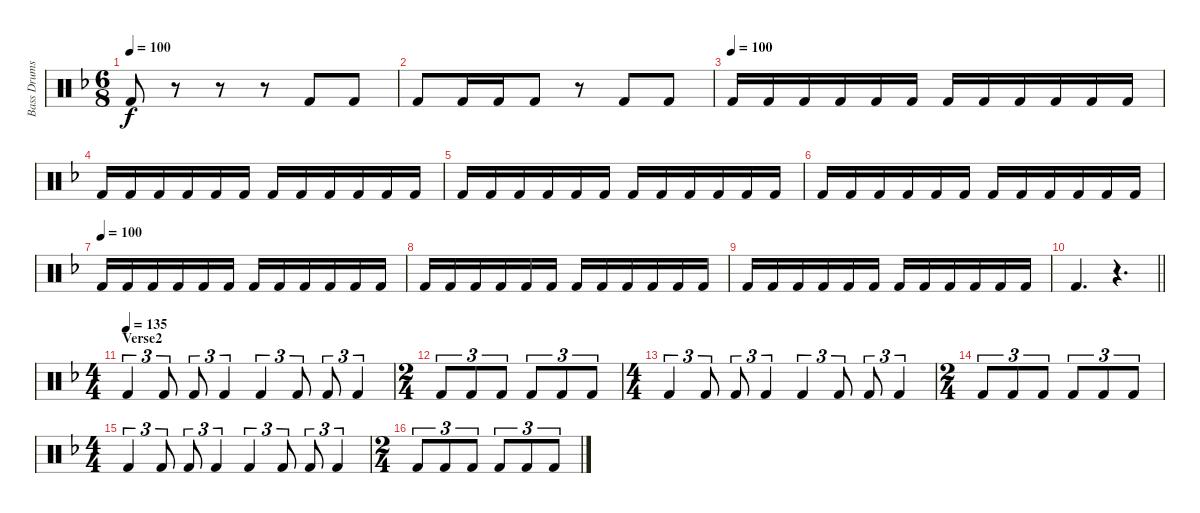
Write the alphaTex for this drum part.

\track ("Bass Drums" "Bass Drums") {instrument percussion}
\staff {score}
\articulation defaults
\ts (6 8)
\tempo 100
\clef neutral
\ks dminor "Kick (hit) 2".8{dy f}
r.8 r.8 r.8 "Kick (hit) 2".8 "Kick (hit) 2".8 |
"Kick (hit) 2".8 "Kick (hit) 2".16 "Kick (hit) 2".16 "Kick (hit) 2".8 r.8 "Kick (hit) 2".8 "Kick (hit) 2".8 |
\tempo 90
\tempo (100)
"Kick (hit) 2".16 "Kick (hit) 2".16 "Kick (hit) 2".16 "Kick (hit) 2".16 "Kick (hit) 2".16 "Kick (hit) 2".16 "Kick (hit) 2".16 "Kick (hit) 2".16 "Kick (hit) 2".16 "Kick (hit) 2".16 "Kick (hit) 2".16 "Kick (hit) 2".16 |
"Kick (hit) 2".16 "Kick (hit) 2".16 "Kick (hit) 2".16 "Kick (hit) 2".16 "Kick (hit) 2".16 "Kick (hit) 2".16 "Kick (hit) 2".16 "Kick (hit) 2".16 "Kick (hit) 2".16 "Kick (hit) 2".16 "Kick (hit) 2".16 "Kick (hit) 2".16 |
"Kick (hit) 2".16 "Kick (hit) 2".16 "Kick (hit) 2".16 "Kick (hit) 2".16 "Kick (hit) 2".16 "Kick (hit) 2".16 "Kick (hit) 2".16 "Kick (hit) 2".16 "Kick (hit) 2".16 "Kick (hit) 2".16 "Kick (hit) 2".16 "Kick (hit) 2".16 |
"Kick (hit) 2".16 "Kick (hit) 2".16 "Kick (hit) 2".16 "Kick (hit) 2".16 "Kick (hit) 2".16 "Kick (hit) 2".16 "Kick (hit) 2".16 "Kick (hit) 2".16 "Kick (hit) 2".16 "Kick (hit) 2".16 "Kick (hit) 2".16 "Kick (hit) 2".16 |
\tempo 90
\tempo (100)
"Kick (hit) 2".16 "Kick (hit) 2".16 "Kick (hit) 2".16 "Kick (hit) 2".16 "Kick (hit) 2".16 "Kick (hit) 2".16 "Kick (hit) 2".16 "Kick (hit) 2".16 "Kick (hit) 2".16 "Kick (hit) 2".16 "Kick (hit) 2".16 "Kick (hit) 2".16 |
"Kick (hit) 2".16 "Kick (hit) 2".16 "Kick (hit) 2".16 "Kick (hit) 2".16 "Kick (hit) 2".16 "Kick (hit) 2".16 "Kick (hit) 2".16 "Kick (hit) 2".16 "Kick (hit) 2".16 "Kick (hit) 2".16 "Kick (hit) 2".16 "Kick (hit) 2".16 |
"Kick (hit) 2".16 "Kick (hit) 2".16 "Kick (hit) 2".16 "Kick (hit) 2".16 "Kick (hit) 2".16 "Kick (hit) 2".16 "Kick (hit) 2".16 "Kick (hit) 2".16 "Kick (hit) 2".16 "Kick (hit) 2".16 "Kick (hit) 2".16 "Kick (hit) 2".16 |
\barLineRight lightlight "Kick (hit) 2".4{d}
r.4{d} |
\ts (4 4)
\section ("" "Verse2")
\tempo (135)
"Kick (hit) 2".4{tu (3 2)} "Kick (hit) 2".8{tu (3 2)} "Kick (hit) 2".8{tu (3 2)} "Kick (hit) 2".4{tu (3 2)} "Kick (hit) 2".4{tu (3 2)} "Kick (hit) 2".8{tu (3 2)} "Kick (hit) 2".8{tu (3 2)} "Kick (hit) 2".4{tu (3 2)} |
\ts (2 4)
"Kick (hit) 2".8{tu (3 2)} "Kick (hit) 2".8{tu (3 2)} "Kick (hit) 2".8{tu (3 2)} "Kick (hit) 2".8{tu (3 2)} "Kick (hit) 2".8{tu (3 2)} "Kick (hit) 2".8{tu (3 2)} |
\ts (4 4)
"Kick (hit) 2".4{tu (3 2)} "Kick (hit) 2".8{tu (3 2)} "Kick (hit) 2".8{tu (3 2)} "Kick (hit) 2".4{tu (3 2)} "Kick (hit) 2".4{tu (3 2)} "Kick (hit) 2".8{tu (3 2)} "Kick (hit) 2".8{tu (3 2)} "Kick (hit) 2".4{tu (3 2)} |
\ts (2 4)
"Kick (hit) 2".8{tu (3 2)} "Kick (hit) 2".8{tu (3 2)} "Kick (hit) 2".8{tu (3 2)} "Kick (hit) 2".8{tu (3 2)} "Kick (hit) 2".8{tu (3 2)} "Kick (hit) 2".8{tu (3 2)} |
\ts (4 4)
"Kick (hit) 2".4{tu (3 2)} "Kick (hit) 2".8{tu (3 2)} "Kick (hit) 2".8{tu (3 2)} "Kick (hit) 2".4{tu (3 2)} "Kick (hit) 2".4{tu (3 2)} "Kick (hit) 2".8{tu (3 2)} "Kick (hit) 2".8{tu (3 2)} "Kick (hit) 2".4{tu (3 2)} |
\ts (2 4)
"Kick (hit) 2".8{tu (3 2)} "Kick (hit) 2".8{tu (3 2)} "Kick (hit) 2".8{tu (3 2)} "Kick (hit) 2".8{tu (3 2)} "Kick (hit) 2".8{tu (3 2)} "Kick (hit) 2".8{tu (3 2)}
